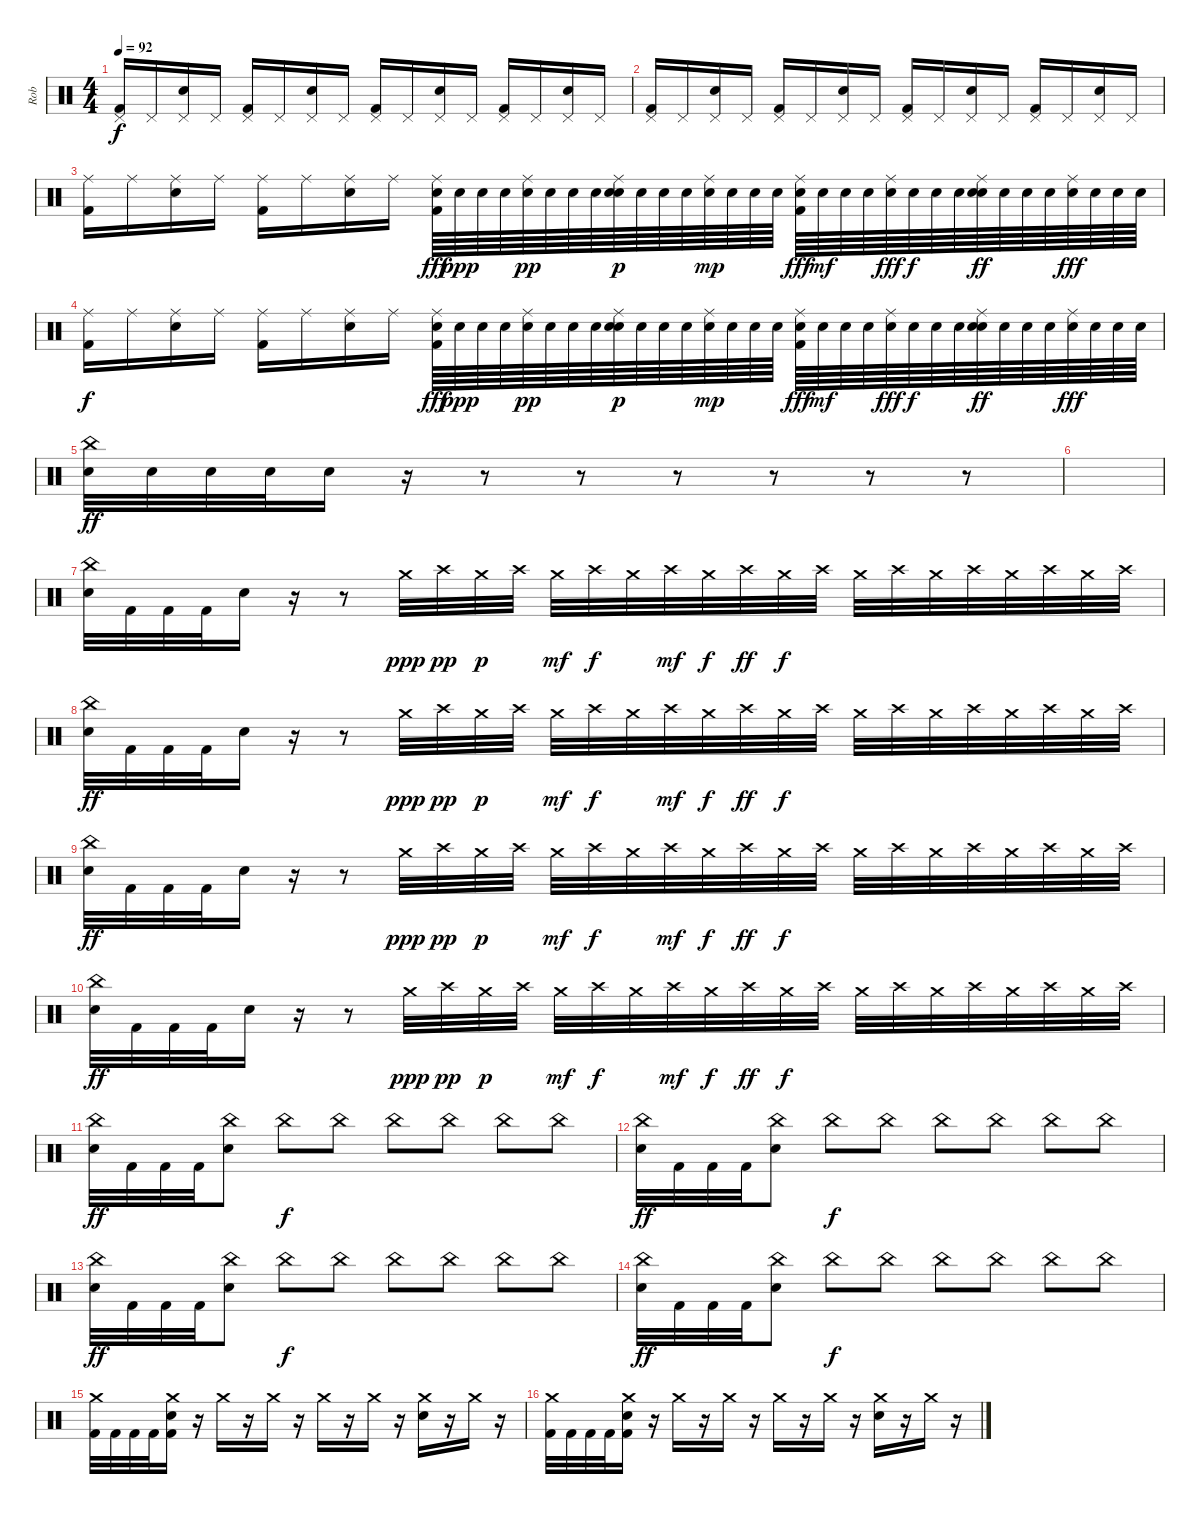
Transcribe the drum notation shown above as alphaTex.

\track ("Rob" "Rob") {instrument percussion}
\staff {score}
\articulation defaults
\ts (4 4)
\tempo 92
\clef neutral
\ks c
("Pedal Hi-Hat (hit)" "Kick (hit) 2").16{dy f} "Pedal Hi-Hat (hit)".16 ("Pedal Hi-Hat (hit)" "Electric Snare (hit)").16 "Pedal Hi-Hat (hit)".16 ("Pedal Hi-Hat (hit)" "Kick (hit) 2").16 "Pedal Hi-Hat (hit)".16 ("Pedal Hi-Hat (hit)" "Electric Snare (hit)").16 "Pedal Hi-Hat (hit)".16 ("Pedal Hi-Hat (hit)" "Kick (hit) 2").16 "Pedal Hi-Hat (hit)".16 ("Pedal Hi-Hat (hit)" "Electric Snare (hit)").16 "Pedal Hi-Hat (hit)".16 ("Pedal Hi-Hat (hit)" "Kick (hit) 2").16 "Pedal Hi-Hat (hit)".16 ("Pedal Hi-Hat (hit)" "Electric Snare (hit)").16 "Pedal Hi-Hat (hit)".16 |
("Pedal Hi-Hat (hit)" "Kick (hit) 2").16 "Pedal Hi-Hat (hit)".16 ("Pedal Hi-Hat (hit)" "Electric Snare (hit)").16 "Pedal Hi-Hat (hit)".16 ("Pedal Hi-Hat (hit)" "Kick (hit) 2").16 "Pedal Hi-Hat (hit)".16 ("Pedal Hi-Hat (hit)" "Electric Snare (hit)").16 "Pedal Hi-Hat (hit)".16 ("Pedal Hi-Hat (hit)" "Kick (hit) 2").16 "Pedal Hi-Hat (hit)".16 ("Pedal Hi-Hat (hit)" "Electric Snare (hit)").16 "Pedal Hi-Hat (hit)".16 ("Pedal Hi-Hat (hit)" "Kick (hit) 2").16 "Pedal Hi-Hat (hit)".16 ("Pedal Hi-Hat (hit)" "Electric Snare (hit)").16 "Pedal Hi-Hat (hit)".16 |
("Ride (middle)" "Kick (hit) 2").16 "Ride (middle)".16 ("Ride (middle)" "Electric Snare (hit)").16 "Ride (middle)".16 ("Ride (middle)" "Kick (hit) 2").16 "Ride (middle)".16 ("Ride (middle)" "Electric Snare (hit)").16 "Ride (middle)".16 ("Ride (middle)" "Electric Snare (hit)" "Kick (hit) 2").64{dy fff} "Electric Snare (hit)".64{dy ppp} "Electric Snare (hit)".64 "Electric Snare (hit)".64 ("Ride (middle)" "Electric Snare (hit)").64{dy pp} "Electric Snare (hit)".64 "Electric Snare (hit)".64 "Electric Snare (hit)".64 ("Ride (middle)" "Electric Snare (hit)" "Electric Snare (hit)").64{dy p} "Electric Snare (hit)".64 "Electric Snare (hit)".64 "Electric Snare (hit)".64 ("Ride (middle)" "Electric Snare (hit)").64{dy mp} "Electric Snare (hit)".64 "Electric Snare (hit)".64 "Electric Snare (hit)".64 ("Ride (middle)" "Electric Snare (hit)" "Kick (hit) 2").64{dy fff} "Electric Snare (hit)".64{dy mf} "Electric Snare (hit)".64 "Electric Snare (hit)".64 ("Ride (middle)" "Electric Snare (hit)").64{dy fff} "Electric Snare (hit)".64{dy f} "Electric Snare (hit)".64 "Electric Snare (hit)".64 ("Ride (middle)" "Electric Snare (hit)" "Electric Snare (hit)").64{dy ff} "Electric Snare (hit)".64 "Electric Snare (hit)".64 "Electric Snare (hit)".64 ("Ride (middle)" "Electric Snare (hit)").64{dy fff} "Electric Snare (hit)".64 "Electric Snare (hit)".64 "Electric Snare (hit)".64 |
("Ride (middle)" "Kick (hit) 2").16{dy f} "Ride (middle)".16 ("Ride (middle)" "Electric Snare (hit)").16 "Ride (middle)".16 ("Ride (middle)" "Kick (hit) 2").16 "Ride (middle)".16 ("Ride (middle)" "Electric Snare (hit)").16 "Ride (middle)".16 ("Ride (middle)" "Electric Snare (hit)" "Kick (hit) 2").64{dy fff} "Electric Snare (hit)".64{dy ppp} "Electric Snare (hit)".64 "Electric Snare (hit)".64 ("Ride (middle)" "Electric Snare (hit)").64{dy pp} "Electric Snare (hit)".64 "Electric Snare (hit)".64 "Electric Snare (hit)".64 ("Ride (middle)" "Electric Snare (hit)" "Electric Snare (hit)").64{dy p} "Electric Snare (hit)".64 "Electric Snare (hit)".64 "Electric Snare (hit)".64 ("Ride (middle)" "Electric Snare (hit)").64{dy mp} "Electric Snare (hit)".64 "Electric Snare (hit)".64 "Electric Snare (hit)".64 ("Ride (middle)" "Electric Snare (hit)" "Kick (hit) 2").64{dy fff} "Electric Snare (hit)".64{dy mf} "Electric Snare (hit)".64 "Electric Snare (hit)".64 ("Ride (middle)" "Electric Snare (hit)").64{dy fff} "Electric Snare (hit)".64{dy f} "Electric Snare (hit)".64 "Electric Snare (hit)".64 ("Ride (middle)" "Electric Snare (hit)" "Electric Snare (hit)").64{dy ff} "Electric Snare (hit)".64 "Electric Snare (hit)".64 "Electric Snare (hit)".64 ("Ride (middle)" "Electric Snare (hit)").64{dy fff} "Electric Snare (hit)".64 "Electric Snare (hit)".64 "Electric Snare (hit)".64 |
("China (hit)" "Electric Snare (hit)").32{dy ff} "Electric Snare (hit)".32 "Electric Snare (hit)".32 "Electric Snare (hit)".32 "Electric Snare (hit)".16 r.16 r.8 r.8 r.8 r.8 r.8 r.8 |
|
("China (hit)" "Electric Snare (hit)").32 "Kick (hit) 2".32 "Kick (hit) 2".32 "Kick (hit) 2".32 "Electric Snare (hit)".16 r.16 r.8 "Crash medium (hit)".32{dy ppp} "Crash high (hit)".32{dy pp} "Crash medium (hit)".32{dy p} "Crash high (hit)".32 "Crash medium (hit)".32{dy mf} "Crash high (hit)".32{dy f} "Crash medium (hit)".32 "Crash high (hit)".32{dy mf} "Crash medium (hit)".32{dy f} "Crash high (hit)".32{dy ff} "Crash medium (hit)".32{dy f} "Crash high (hit)".32 "Crash medium (hit)".32 "Crash high (hit)".32 "Crash medium (hit)".32 "Crash high (hit)".32 "Crash medium (hit)".32 "Crash high (hit)".32 "Crash medium (hit)".32 "Crash high (hit)".32 |
("China (hit)" "Electric Snare (hit)").32{dy ff} "Kick (hit) 2".32 "Kick (hit) 2".32 "Kick (hit) 2".32 "Electric Snare (hit)".16 r.16 r.8 "Crash medium (hit)".32{dy ppp} "Crash high (hit)".32{dy pp} "Crash medium (hit)".32{dy p} "Crash high (hit)".32 "Crash medium (hit)".32{dy mf} "Crash high (hit)".32{dy f} "Crash medium (hit)".32 "Crash high (hit)".32{dy mf} "Crash medium (hit)".32{dy f} "Crash high (hit)".32{dy ff} "Crash medium (hit)".32{dy f} "Crash high (hit)".32 "Crash medium (hit)".32 "Crash high (hit)".32 "Crash medium (hit)".32 "Crash high (hit)".32 "Crash medium (hit)".32 "Crash high (hit)".32 "Crash medium (hit)".32 "Crash high (hit)".32 |
("China (hit)" "Electric Snare (hit)").32{dy ff} "Kick (hit) 2".32 "Kick (hit) 2".32 "Kick (hit) 2".32 "Electric Snare (hit)".16 r.16 r.8 "Crash medium (hit)".32{dy ppp} "Crash high (hit)".32{dy pp} "Crash medium (hit)".32{dy p} "Crash high (hit)".32 "Crash medium (hit)".32{dy mf} "Crash high (hit)".32{dy f} "Crash medium (hit)".32 "Crash high (hit)".32{dy mf} "Crash medium (hit)".32{dy f} "Crash high (hit)".32{dy ff} "Crash medium (hit)".32{dy f} "Crash high (hit)".32 "Crash medium (hit)".32 "Crash high (hit)".32 "Crash medium (hit)".32 "Crash high (hit)".32 "Crash medium (hit)".32 "Crash high (hit)".32 "Crash medium (hit)".32 "Crash high (hit)".32 |
("China (hit)" "Electric Snare (hit)").32{dy ff} "Kick (hit) 2".32 "Kick (hit) 2".32 "Kick (hit) 2".32 "Electric Snare (hit)".16 r.16 r.8 "Crash medium (hit)".32{dy ppp} "Crash high (hit)".32{dy pp} "Crash medium (hit)".32{dy p} "Crash high (hit)".32 "Crash medium (hit)".32{dy mf} "Crash high (hit)".32{dy f} "Crash medium (hit)".32 "Crash high (hit)".32{dy mf} "Crash medium (hit)".32{dy f} "Crash high (hit)".32{dy ff} "Crash medium (hit)".32{dy f} "Crash high (hit)".32 "Crash medium (hit)".32 "Crash high (hit)".32 "Crash medium (hit)".32 "Crash high (hit)".32 "Crash medium (hit)".32 "Crash high (hit)".32 "Crash medium (hit)".32 "Crash high (hit)".32 |
("China (hit)" "Electric Snare (hit)").32{dy ff} "Kick (hit) 2".32 "Kick (hit) 2".32 "Kick (hit) 2".32 ("China (hit)" "Electric Snare (hit)").8 "China (hit)".8{dy f} "China (hit)".8 "China (hit)".8 "China (hit)".8 "China (hit)".8 "China (hit)".8 |
("China (hit)" "Electric Snare (hit)").32{dy ff} "Kick (hit) 2".32 "Kick (hit) 2".32 "Kick (hit) 2".32 ("China (hit)" "Electric Snare (hit)").8 "China (hit)".8{dy f} "China (hit)".8 "China (hit)".8 "China (hit)".8 "China (hit)".8 "China (hit)".8 |
("China (hit)" "Electric Snare (hit)").32{dy ff} "Kick (hit) 2".32 "Kick (hit) 2".32 "Kick (hit) 2".32 ("China (hit)" "Electric Snare (hit)").8 "China (hit)".8{dy f} "China (hit)".8 "China (hit)".8 "China (hit)".8 "China (hit)".8 "China (hit)".8 |
("China (hit)" "Electric Snare (hit)").32{dy ff} "Kick (hit) 2".32 "Kick (hit) 2".32 "Kick (hit) 2".32 ("China (hit)" "Electric Snare (hit)").8 "China (hit)".8{dy f} "China (hit)".8 "China (hit)".8 "China (hit)".8 "China (hit)".8 "China (hit)".8 |
("Crash medium (hit)" "Kick (hit) 2").32 "Kick (hit) 2".32 "Kick (hit) 2".32 "Kick (hit) 2".32 ("Crash medium (hit)" "Electric Snare (hit)" "Kick (hit) 2").16 r.16 "Crash medium (hit)".16 r.16 "Crash medium (hit)".16 r.16 "Crash medium (hit)".16 r.16 "Crash medium (hit)".16 r.16 ("Crash medium (hit)" "Electric Snare (hit)").16 r.16 "Crash medium (hit)".16 r.16 |
("Crash medium (hit)" "Kick (hit) 2").32 "Kick (hit) 2".32 "Kick (hit) 2".32 "Kick (hit) 2".32 ("Crash medium (hit)" "Electric Snare (hit)" "Kick (hit) 2").16 r.16 "Crash medium (hit)".16 r.16 "Crash medium (hit)".16 r.16 "Crash medium (hit)".16 r.16 "Crash medium (hit)".16 r.16 ("Crash medium (hit)" "Electric Snare (hit)").16 r.16 "Crash medium (hit)".16 r.16
